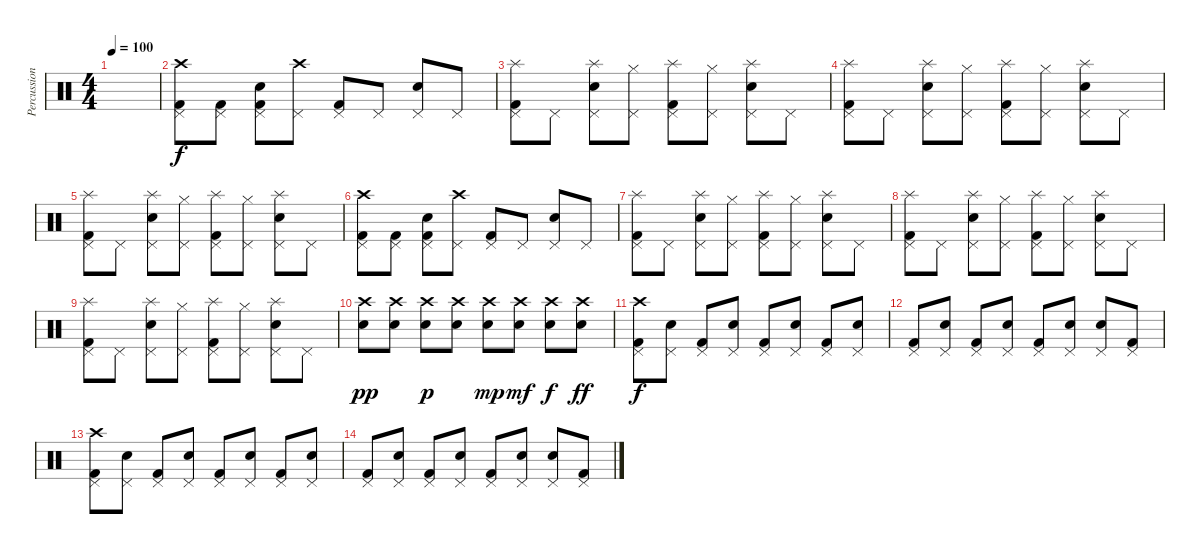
\track ("Percussion" "Percussion") {instrument percussion}
\staff {score}
\articulation defaults
\ts (4 4)
\tempo 100
\clef neutral
\ks c
|
("Crash high (hit)" "Kick (hit) 2" "Pedal Hi-Hat (hit)").8 ("Kick (hit) 2" "Pedal Hi-Hat (hit)").8 ("Electric Snare (hit)" "Kick (hit) 2" "Pedal Hi-Hat (hit)").8 ("Crash high (hit)" "Pedal Hi-Hat (hit)").8 ("Kick (hit) 2" "Pedal Hi-Hat (hit)").8 "Pedal Hi-Hat (hit)".8 ("Electric Snare (hit)" "Pedal Hi-Hat (hit)").8 "Pedal Hi-Hat (hit)".8 |
("Kick (hit) 2" "Pedal Hi-Hat (hit)" "Splash (hit)").8 "Pedal Hi-Hat (hit)".8 ("Electric Snare (hit)" "Pedal Hi-Hat (hit)" "Splash (hit)").8 ("Hi-Hat (closed)" "Pedal Hi-Hat (hit)").8 ("Kick (hit) 2" "Pedal Hi-Hat (hit)" "Splash (hit)").8 ("Hi-Hat (closed)" "Pedal Hi-Hat (hit)").8 ("Electric Snare (hit)" "Pedal Hi-Hat (hit)" "Splash (hit)").8 "Pedal Hi-Hat (hit)".8 |
("Kick (hit) 2" "Pedal Hi-Hat (hit)" "Splash (hit)").8 "Pedal Hi-Hat (hit)".8 ("Electric Snare (hit)" "Pedal Hi-Hat (hit)" "Splash (hit)").8 ("Hi-Hat (closed)" "Pedal Hi-Hat (hit)").8 ("Kick (hit) 2" "Pedal Hi-Hat (hit)" "Splash (hit)").8 ("Hi-Hat (closed)" "Pedal Hi-Hat (hit)").8 ("Electric Snare (hit)" "Pedal Hi-Hat (hit)" "Splash (hit)").8 "Pedal Hi-Hat (hit)".8 |
("Kick (hit) 2" "Pedal Hi-Hat (hit)" "Splash (hit)").8 "Pedal Hi-Hat (hit)".8 ("Electric Snare (hit)" "Pedal Hi-Hat (hit)" "Splash (hit)").8 ("Hi-Hat (closed)" "Pedal Hi-Hat (hit)").8 ("Kick (hit) 2" "Pedal Hi-Hat (hit)" "Splash (hit)").8 ("Hi-Hat (closed)" "Pedal Hi-Hat (hit)").8 ("Electric Snare (hit)" "Pedal Hi-Hat (hit)" "Splash (hit)").8 "Pedal Hi-Hat (hit)".8 |
("Crash high (hit)" "Kick (hit) 2" "Pedal Hi-Hat (hit)").8 ("Kick (hit) 2" "Pedal Hi-Hat (hit)").8 ("Electric Snare (hit)" "Kick (hit) 2" "Pedal Hi-Hat (hit)").8 ("Crash high (hit)" "Pedal Hi-Hat (hit)").8 ("Kick (hit) 2" "Pedal Hi-Hat (hit)").8 "Pedal Hi-Hat (hit)".8 ("Electric Snare (hit)" "Pedal Hi-Hat (hit)").8 "Pedal Hi-Hat (hit)".8 |
("Kick (hit) 2" "Pedal Hi-Hat (hit)" "Splash (hit)").8 "Pedal Hi-Hat (hit)".8 ("Electric Snare (hit)" "Pedal Hi-Hat (hit)" "Splash (hit)").8 ("Hi-Hat (closed)" "Pedal Hi-Hat (hit)").8 ("Kick (hit) 2" "Pedal Hi-Hat (hit)" "Splash (hit)").8 ("Hi-Hat (closed)" "Pedal Hi-Hat (hit)").8 ("Electric Snare (hit)" "Pedal Hi-Hat (hit)" "Splash (hit)").8 "Pedal Hi-Hat (hit)".8 |
("Kick (hit) 2" "Pedal Hi-Hat (hit)" "Splash (hit)").8 "Pedal Hi-Hat (hit)".8 ("Electric Snare (hit)" "Pedal Hi-Hat (hit)" "Splash (hit)").8 ("Hi-Hat (closed)" "Pedal Hi-Hat (hit)").8 ("Kick (hit) 2" "Pedal Hi-Hat (hit)" "Splash (hit)").8 ("Hi-Hat (closed)" "Pedal Hi-Hat (hit)").8 ("Electric Snare (hit)" "Pedal Hi-Hat (hit)" "Splash (hit)").8 "Pedal Hi-Hat (hit)".8 |
("Kick (hit) 2" "Pedal Hi-Hat (hit)" "Splash (hit)").8 "Pedal Hi-Hat (hit)".8 ("Electric Snare (hit)" "Pedal Hi-Hat (hit)" "Splash (hit)").8 ("Hi-Hat (closed)" "Pedal Hi-Hat (hit)").8 ("Kick (hit) 2" "Pedal Hi-Hat (hit)" "Splash (hit)").8 ("Hi-Hat (closed)" "Pedal Hi-Hat (hit)").8 ("Electric Snare (hit)" "Pedal Hi-Hat (hit)" "Splash (hit)").8 "Pedal Hi-Hat (hit)".8 |
("Crash high (hit)" "Electric Snare (hit)").8{dy pp} ("Crash high (hit)" "Electric Snare (hit)").8 ("Crash high (hit)" "Electric Snare (hit)").8{dy p} ("Crash high (hit)" "Electric Snare (hit)").8 ("Crash high (hit)" "Electric Snare (hit)").8{dy mp} ("Crash high (hit)" "Electric Snare (hit)").8{dy mf} ("Crash high (hit)" "Electric Snare (hit)").8{dy f} ("Crash high (hit)" "Electric Snare (hit)").8{dy ff} |
("Pedal Hi-Hat (hit)" "Crash high (hit)" "Kick (hit) 2").8{dy f} ("Pedal Hi-Hat (hit)" "Electric Snare (hit)").8 ("Pedal Hi-Hat (hit)" "Kick (hit) 2").8 ("Pedal Hi-Hat (hit)" "Electric Snare (hit)").8 ("Pedal Hi-Hat (hit)" "Kick (hit) 2").8 ("Pedal Hi-Hat (hit)" "Electric Snare (hit)").8 ("Pedal Hi-Hat (hit)" "Kick (hit) 2").8 ("Pedal Hi-Hat (hit)" "Electric Snare (hit)").8 |
("Pedal Hi-Hat (hit)" "Kick (hit) 2").8 ("Pedal Hi-Hat (hit)" "Electric Snare (hit)").8 ("Pedal Hi-Hat (hit)" "Kick (hit) 2").8 ("Pedal Hi-Hat (hit)" "Electric Snare (hit)").8 ("Pedal Hi-Hat (hit)" "Kick (hit) 2").8 ("Pedal Hi-Hat (hit)" "Electric Snare (hit)").8 ("Pedal Hi-Hat (hit)" "Electric Snare (hit)").8 ("Pedal Hi-Hat (hit)" "Kick (hit) 2").8 |
("Pedal Hi-Hat (hit)" "Crash high (hit)" "Kick (hit) 2").8 ("Pedal Hi-Hat (hit)" "Electric Snare (hit)").8 ("Pedal Hi-Hat (hit)" "Kick (hit) 2").8 ("Pedal Hi-Hat (hit)" "Electric Snare (hit)").8 ("Pedal Hi-Hat (hit)" "Kick (hit) 2").8 ("Pedal Hi-Hat (hit)" "Electric Snare (hit)").8 ("Pedal Hi-Hat (hit)" "Kick (hit) 2").8 ("Pedal Hi-Hat (hit)" "Electric Snare (hit)").8 |
("Pedal Hi-Hat (hit)" "Kick (hit) 2").8 ("Pedal Hi-Hat (hit)" "Electric Snare (hit)").8 ("Pedal Hi-Hat (hit)" "Kick (hit) 2").8 ("Pedal Hi-Hat (hit)" "Electric Snare (hit)").8 ("Pedal Hi-Hat (hit)" "Kick (hit) 2").8 ("Pedal Hi-Hat (hit)" "Electric Snare (hit)").8 ("Pedal Hi-Hat (hit)" "Electric Snare (hit)").8 ("Pedal Hi-Hat (hit)" "Kick (hit) 2").8
